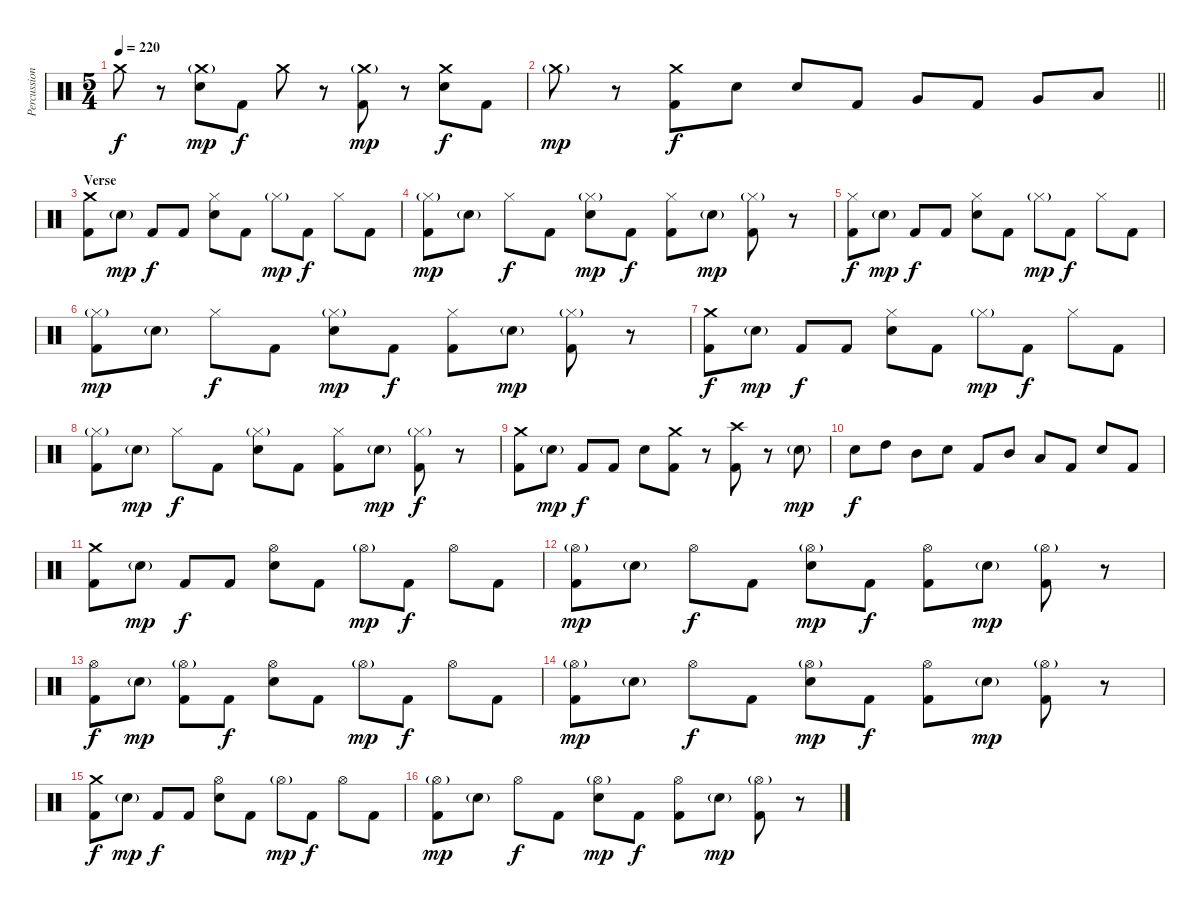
\track ("Percussion" "Percussion") {instrument percussion}
\staff {score}
\articulation defaults
\ts (5 4)
\tempo 220
\clef neutral
\ks c "Crash medium (hit)".8{dy f}
r.8 ("Crash medium (hit)"{g} "Electric Snare (hit)").8{dy mp} "Kick (hit) 2".8{dy f} "Crash medium (hit)".8 r.8 ("Crash medium (hit)"{g} "Kick (hit) 2").8{dy mp} r.8 ("Crash medium (hit)" "Electric Snare (hit)").8{dy f} "Kick (hit) 2".8 |
\barLineRight lightlight "Crash medium (hit)"{g}.8{dy mp}
r.8 ("Crash medium (hit)" "Kick (hit) 2").8{dy f} "Electric Snare (hit)".8 "Electric Snare (hit)".8 "Kick (hit) 2".8 "Very Low Tom (hit)".8 "Kick (hit) 2".8 "Very Low Tom (hit)".8 "Low Floor Tom (hit)".8 |
\section ("" "Verse")
("Crash medium (hit)" "Kick (hit) 2").8 "Electric Snare (hit)"{g}.8{dy mp} "Kick (hit) 2".8{dy f} "Kick (hit) 2".8 ("Hi-Hat (closed)" "Electric Snare (hit)").8 "Kick (hit) 2".8 "Hi-Hat (closed)"{g}.8{dy mp} "Kick (hit) 2".8{dy f} "Hi-Hat (closed)".8 "Kick (hit) 2".8 |
("Hi-Hat (closed)"{g} "Kick (hit) 2").8{dy mp} "Electric Snare (hit)"{g}.8 "Hi-Hat (closed)".8{dy f} "Kick (hit) 2".8 ("Hi-Hat (closed)"{g} "Electric Snare (hit)").8{dy mp} "Kick (hit) 2".8{dy f} ("Hi-Hat (closed)" "Kick (hit) 2").8 "Electric Snare (hit)"{g}.8{dy mp} ("Hi-Hat (closed)"{g} "Kick (hit) 2").8 r.8 |
("Hi-Hat (closed)" "Kick (hit) 2").8{dy f} "Electric Snare (hit)"{g}.8{dy mp} "Kick (hit) 2".8{dy f} "Kick (hit) 2".8 ("Hi-Hat (closed)" "Electric Snare (hit)").8 "Kick (hit) 2".8 "Hi-Hat (closed)"{g}.8{dy mp} "Kick (hit) 2".8{dy f} "Hi-Hat (closed)".8 "Kick (hit) 2".8 |
("Hi-Hat (closed)"{g} "Kick (hit) 2").8{dy mp} "Electric Snare (hit)"{g}.8 "Hi-Hat (closed)".8{dy f} "Kick (hit) 2".8 ("Hi-Hat (closed)"{g} "Electric Snare (hit)").8{dy mp} "Kick (hit) 2".8{dy f} ("Hi-Hat (closed)" "Kick (hit) 2").8 "Electric Snare (hit)"{g}.8{dy mp} ("Hi-Hat (closed)"{g} "Kick (hit) 2").8 r.8 |
("Crash medium (hit)" "Kick (hit) 2").8{dy f} "Electric Snare (hit)"{g}.8{dy mp} "Kick (hit) 2".8{dy f} "Kick (hit) 2".8 ("Hi-Hat (closed)" "Electric Snare (hit)").8 "Kick (hit) 2".8 "Hi-Hat (closed)"{g}.8{dy mp} "Kick (hit) 2".8{dy f} "Hi-Hat (closed)".8 "Kick (hit) 2".8 |
("Hi-Hat (closed)"{g} "Kick (hit) 2").8 "Electric Snare (hit)"{g}.8{dy mp} "Hi-Hat (closed)".8{dy f} "Kick (hit) 2".8 ("Hi-Hat (closed)"{g} "Electric Snare (hit)").8 "Kick (hit) 2".8 ("Hi-Hat (closed)" "Kick (hit) 2").8 "Electric Snare (hit)"{g}.8{dy mp} ("Hi-Hat (closed)"{g} "Kick (hit) 2").8{dy f} r.8 |
("Crash medium (hit)" "Kick (hit) 2").8 "Electric Snare (hit)"{g}.8{dy mp} "Kick (hit) 2".8{dy f} "Kick (hit) 2".8 "Electric Snare (hit)".8 ("Crash medium (hit)" "Kick (hit) 2").8 r.8 ("Crash high (hit)" "Kick (hit) 2").8 r.8 "Electric Snare (hit)"{g}.8{dy mp} |
"Electric Snare (hit)".8{dy f} "High Tom (hit)".8 "Mid Tom (hit)".8 "Electric Snare (hit)".8 "Kick (hit) 2".8 "Mid Tom (hit)".8 "Low Tom (hit)".8 "Kick (hit) 2".8 "Electric Snare (hit)".8 "Kick (hit) 2".8 |
("Crash medium (hit)" "Kick (hit) 2").8 "Electric Snare (hit)"{g}.8{dy mp} "Kick (hit) 2".8{dy f} "Kick (hit) 2".8 ("Hi-Hat (open)" "Electric Snare (hit)").8 "Kick (hit) 2".8 "Hi-Hat (open)"{g}.8{dy mp} "Kick (hit) 2".8{dy f} "Hi-Hat (open)".8 "Kick (hit) 2".8 |
("Hi-Hat (open)"{g} "Kick (hit) 2").8{dy mp} "Electric Snare (hit)"{g}.8 "Hi-Hat (open)".8{dy f} "Kick (hit) 2".8 ("Hi-Hat (open)"{g} "Electric Snare (hit)").8{dy mp} "Kick (hit) 2".8{dy f} ("Hi-Hat (open)" "Kick (hit) 2").8 "Electric Snare (hit)"{g}.8{dy mp} ("Hi-Hat (open)"{g} "Kick (hit) 2").8 r.8 |
("Hi-Hat (open)" "Kick (hit) 2").8{dy f} "Electric Snare (hit)"{g}.8{dy mp} ("Hi-Hat (open)"{g} "Kick (hit) 2").8 "Kick (hit) 2".8{dy f} ("Hi-Hat (open)" "Electric Snare (hit)").8 "Kick (hit) 2".8 "Hi-Hat (open)"{g}.8{dy mp} "Kick (hit) 2".8{dy f} "Hi-Hat (open)".8 "Kick (hit) 2".8 |
("Hi-Hat (open)"{g} "Kick (hit) 2").8{dy mp} "Electric Snare (hit)"{g}.8 "Hi-Hat (open)".8{dy f} "Kick (hit) 2".8 ("Hi-Hat (open)"{g} "Electric Snare (hit)").8{dy mp} "Kick (hit) 2".8{dy f} ("Hi-Hat (open)" "Kick (hit) 2").8 "Electric Snare (hit)"{g}.8{dy mp} ("Hi-Hat (open)"{g} "Kick (hit) 2").8 r.8 |
("Crash medium (hit)" "Kick (hit) 2").8{dy f} "Electric Snare (hit)"{g}.8{dy mp} "Kick (hit) 2".8{dy f} "Kick (hit) 2".8 ("Hi-Hat (open)" "Electric Snare (hit)").8 "Kick (hit) 2".8 "Hi-Hat (open)"{g}.8{dy mp} "Kick (hit) 2".8{dy f} "Hi-Hat (open)".8 "Kick (hit) 2".8 |
("Hi-Hat (open)"{g} "Kick (hit) 2").8{dy mp} "Electric Snare (hit)"{g}.8 "Hi-Hat (open)".8{dy f} "Kick (hit) 2".8 ("Hi-Hat (open)"{g} "Electric Snare (hit)").8{dy mp} "Kick (hit) 2".8{dy f} ("Hi-Hat (open)" "Kick (hit) 2").8 "Electric Snare (hit)"{g}.8{dy mp} ("Hi-Hat (open)"{g} "Kick (hit) 2").8 r.8
